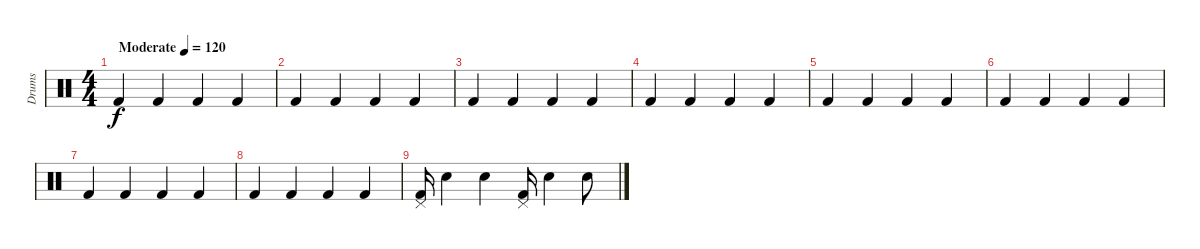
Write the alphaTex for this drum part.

\track ("Drums" "Drums") {instrument percussion}
\staff {score}
\articulation defaults
\ts (4 4)
\tempo (120 "Moderate")
\clef neutral
\ks c "Kick (hit) 2".4{dy f} "Kick (hit) 2".4 "Kick (hit) 2".4 "Kick (hit) 2".4
|
"Kick (hit) 2".4 "Kick (hit) 2".4 "Kick (hit) 2".4 "Kick (hit) 2".4 |
"Kick (hit) 2".4 "Kick (hit) 2".4 "Kick (hit) 2".4 "Kick (hit) 2".4 |
"Kick (hit) 2".4 "Kick (hit) 2".4 "Kick (hit) 2".4 "Kick (hit) 2".4 |
"Kick (hit) 2".4 "Kick (hit) 2".4 "Kick (hit) 2".4 "Kick (hit) 2".4 |
"Kick (hit) 2".4 "Kick (hit) 2".4 "Kick (hit) 2".4 "Kick (hit) 2".4 |
"Kick (hit) 2".4 "Kick (hit) 2".4 "Kick (hit) 2".4 "Kick (hit) 2".4 |
"Kick (hit) 2".4 "Kick (hit) 2".4 "Kick (hit) 2".4 "Kick (hit) 2".4 |
("Pedal Hi-Hat (hit)" "Kick (hit) 2").16 "Electric Snare (hit)".4 "Electric Snare (hit)".4 ("Pedal Hi-Hat (hit)" "Kick (hit) 2").16 "Electric Snare (hit)".4 "Electric Snare (hit)".8
